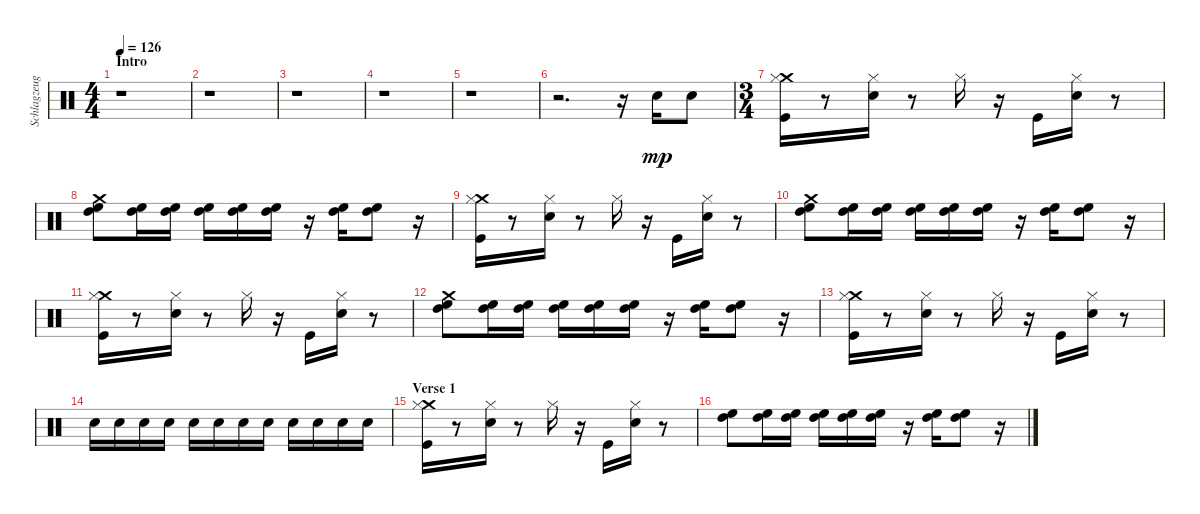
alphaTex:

\track ("Schlagzeug - Bela B." "Schlagzeug") {instrument percussion}
\staff {score}
\articulation defaults
\ts (4 4)
\section ("" "Intro")
\tempo 126
\clef neutral
\ks c
r.1{dy mp} |
r.1 |
r.1 |
r.1 |
r.1 |
r.2{d} r.16 "Electric Snare (hit)".16 "Electric Snare (hit)".8 |
\ts (3 4)
("Kick (hit)" "Crash medium (hit)" "Hi-Hat (closed)").16 r.8 ("Electric Snare (hit)" "Hi-Hat (closed)").16 r.8 "Hi-Hat (closed)".16 r.16 "Kick (hit)".16 ("Electric Snare (hit)" "Hi-Hat (closed)").16 r.8 |
("High Floor Tom (hit)" "High Tom (hit)" "Crash medium (hit)").8 ("High Floor Tom (hit)" "High Tom (hit)").16 ("High Floor Tom (hit)" "High Tom (hit)").16 ("High Floor Tom (hit)" "High Tom (hit)").16 ("High Floor Tom (hit)" "High Tom (hit)").16 ("High Floor Tom (hit)" "High Tom (hit)").16 r.16 ("High Floor Tom (hit)" "High Tom (hit)").16 ("High Floor Tom (hit)" "High Tom (hit)").8 r.16 |
("Kick (hit)" "Crash medium (hit)" "Hi-Hat (closed)").16 r.8 ("Electric Snare (hit)" "Hi-Hat (closed)").16 r.8 "Hi-Hat (closed)".16 r.16 "Kick (hit)".16 ("Electric Snare (hit)" "Hi-Hat (closed)").16 r.8 |
("High Floor Tom (hit)" "High Tom (hit)" "Crash medium (hit)").8 ("High Floor Tom (hit)" "High Tom (hit)").16 ("High Floor Tom (hit)" "High Tom (hit)").16 ("High Floor Tom (hit)" "High Tom (hit)").16 ("High Floor Tom (hit)" "High Tom (hit)").16 ("High Floor Tom (hit)" "High Tom (hit)").16 r.16 ("High Floor Tom (hit)" "High Tom (hit)").16 ("High Floor Tom (hit)" "High Tom (hit)").8 r.16 |
("Kick (hit)" "Crash medium (hit)" "Hi-Hat (closed)").16 r.8 ("Electric Snare (hit)" "Hi-Hat (closed)").16 r.8 "Hi-Hat (closed)".16 r.16 "Kick (hit)".16 ("Electric Snare (hit)" "Hi-Hat (closed)").16 r.8 |
("High Floor Tom (hit)" "High Tom (hit)" "Crash medium (hit)").8 ("High Floor Tom (hit)" "High Tom (hit)").16 ("High Floor Tom (hit)" "High Tom (hit)").16 ("High Floor Tom (hit)" "High Tom (hit)").16 ("High Floor Tom (hit)" "High Tom (hit)").16 ("High Floor Tom (hit)" "High Tom (hit)").16 r.16 ("High Floor Tom (hit)" "High Tom (hit)").16 ("High Floor Tom (hit)" "High Tom (hit)").8 r.16 |
("Kick (hit)" "Crash medium (hit)" "Hi-Hat (closed)").16 r.8 ("Electric Snare (hit)" "Hi-Hat (closed)").16 r.8 "Hi-Hat (closed)".16 r.16 "Kick (hit)".16 ("Electric Snare (hit)" "Hi-Hat (closed)").16 r.8 |
"Electric Snare (hit)".16 "Electric Snare (hit)".16 "Electric Snare (hit)".16 "Electric Snare (hit)".16 "Electric Snare (hit)".16 "Electric Snare (hit)".16 "Electric Snare (hit)".16 "Electric Snare (hit)".16 "Electric Snare (hit)".16 "Electric Snare (hit)".16 "Electric Snare (hit)".16 "Electric Snare (hit)".16 |
\section ("" "Verse 1")
("Kick (hit)" "Crash medium (hit)" "Hi-Hat (closed)").16 r.8 ("Electric Snare (hit)" "Hi-Hat (closed)").16 r.8 "Hi-Hat (closed)".16 r.16 "Kick (hit)".16 ("Electric Snare (hit)" "Hi-Hat (closed)").16 r.8 |
("High Floor Tom (hit)" "High Tom (hit)").8 ("High Floor Tom (hit)" "High Tom (hit)").16 ("High Floor Tom (hit)" "High Tom (hit)").16 ("High Floor Tom (hit)" "High Tom (hit)").16 ("High Floor Tom (hit)" "High Tom (hit)").16 ("High Floor Tom (hit)" "High Tom (hit)").16 r.16 ("High Floor Tom (hit)" "High Tom (hit)").16 ("High Floor Tom (hit)" "High Tom (hit)").8 r.16
